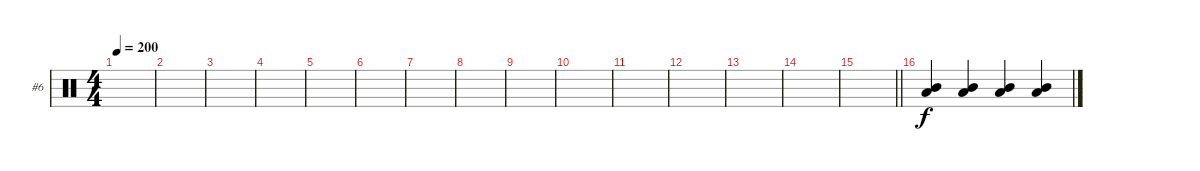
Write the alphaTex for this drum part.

\bracketExtendMode groupsimilarinstruments
\firstSystemTrackNameOrientation horizontal
\otherSystemsTrackNameOrientation horizontal
\track ("Shawn \"Clown\" Crahan" "#6") {instrument percussion}
\staff {score}
\articulation defaults
\ts (4 4)
\tempo 200
\clef neutral
\ks c
|
|
|
|
|
|
|
|
|
|
|
|
|
|
\barLineRight lightlight
|
("Low Tom (hit)" "Mid Tom (hit)").4 ("Low Tom (hit)" "Mid Tom (hit)").4 ("Low Tom (hit)" "Mid Tom (hit)").4 ("Low Tom (hit)" "Mid Tom (hit)").4
